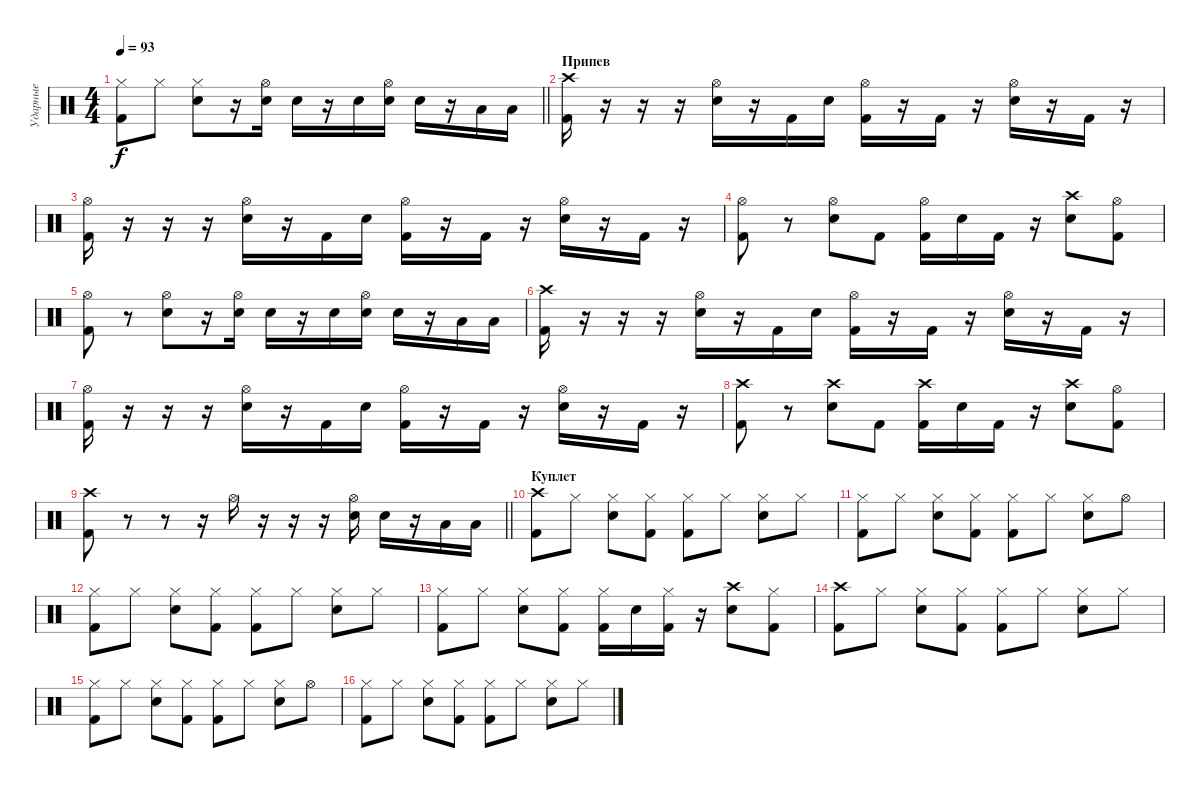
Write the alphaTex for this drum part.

\track ("Ударные" "Ударные") {instrument percussion}
\staff {score}
\articulation defaults
\ts (4 4)
\tempo 93
\clef neutral
\barLineRight lightlight
\ks c
("Hi-Hat (closed)" "Kick (hit) 2").8{dy f} "Hi-Hat (closed)".8 ("Hi-Hat (closed)" "Electric Snare (hit)").8 r.16 ("Hi-Hat (open)" "Electric Snare (hit)").16 "Electric Snare (hit)".16 r.16 "Electric Snare (hit)".16 ("Hi-Hat (open)" "Electric Snare (hit)").16 "Electric Snare (hit)".16 r.16 "Low Tom (hit)".16 "Low Tom (hit)".16 |
\section ("" "Припев")
("Crash high (hit)" "Kick (hit) 2").16 r.16 r.16 r.16 ("Hi-Hat (open)" "Electric Snare (hit)").16 r.16 "Kick (hit) 2".16 "Electric Snare (hit)".16 ("Hi-Hat (open)" "Kick (hit) 2").16 r.16 "Kick (hit) 2".16 r.16 ("Hi-Hat (open)" "Electric Snare (hit)").16 r.16 "Kick (hit) 2".16 r.16 |
("Hi-Hat (open)" "Kick (hit) 2").16 r.16 r.16 r.16 ("Hi-Hat (open)" "Electric Snare (hit)").16 r.16 "Kick (hit) 2".16 "Electric Snare (hit)".16 ("Hi-Hat (open)" "Kick (hit) 2").16 r.16 "Kick (hit) 2".16 r.16 ("Hi-Hat (open)" "Electric Snare (hit)").16 r.16 "Kick (hit) 2".16 r.16 |
("Hi-Hat (open)" "Kick (hit) 2").8 r.8 ("Hi-Hat (open)" "Electric Snare (hit)").8 "Kick (hit) 2".8 ("Hi-Hat (open)" "Kick (hit) 2").16 "Electric Snare (hit)".16 "Kick (hit) 2".16 r.16 ("Crash high (hit)" "Electric Snare (hit)").8 ("Hi-Hat (open)" "Kick (hit) 2").8 |
("Hi-Hat (open)" "Kick (hit) 2").8 r.8 ("Hi-Hat (open)" "Electric Snare (hit)").8 r.16 ("Hi-Hat (open)" "Electric Snare (hit)").16 "Electric Snare (hit)".16 r.16 "Electric Snare (hit)".16 ("Hi-Hat (open)" "Electric Snare (hit)").16 "Electric Snare (hit)".16 r.16 "Low Tom (hit)".16 "Low Tom (hit)".16 |
("Crash high (hit)" "Kick (hit) 2").16 r.16 r.16 r.16 ("Hi-Hat (open)" "Electric Snare (hit)").16 r.16 "Kick (hit) 2".16 "Electric Snare (hit)".16 ("Hi-Hat (open)" "Kick (hit) 2").16 r.16 "Kick (hit) 2".16 r.16 ("Hi-Hat (open)" "Electric Snare (hit)").16 r.16 "Kick (hit) 2".16 r.16 |
("Hi-Hat (open)" "Kick (hit) 2").16 r.16 r.16 r.16 ("Hi-Hat (open)" "Electric Snare (hit)").16 r.16 "Kick (hit) 2".16 "Electric Snare (hit)".16 ("Hi-Hat (open)" "Kick (hit) 2").16 r.16 "Kick (hit) 2".16 r.16 ("Hi-Hat (open)" "Electric Snare (hit)").16 r.16 "Kick (hit) 2".16 r.16 |
("Crash high (hit)" "Kick (hit) 2").8 r.8 ("Crash high (hit)" "Electric Snare (hit)").8 "Kick (hit) 2".8 ("Crash high (hit)" "Kick (hit) 2").16 "Electric Snare (hit)".16 "Kick (hit) 2".16 r.16 ("Crash high (hit)" "Electric Snare (hit)").8 ("Hi-Hat (open)" "Kick (hit) 2").8 |
\barLineRight lightlight
("Crash high (hit)" "Kick (hit) 2").8 r.8 r.8 r.16 "Hi-Hat (open)".16 r.16 r.16 r.16 ("Hi-Hat (open)" "Electric Snare (hit)").16 "Electric Snare (hit)".16 r.16 "Low Tom (hit)".16 "Low Tom (hit)".16 |
\section ("" "Куплет")
("Crash high (hit)" "Kick (hit) 2").8 "Hi-Hat (closed)".8 ("Hi-Hat (closed)" "Electric Snare (hit)").8 ("Hi-Hat (closed)" "Kick (hit) 2").8 ("Hi-Hat (closed)" "Kick (hit) 2").8 "Hi-Hat (closed)".8 ("Hi-Hat (closed)" "Electric Snare (hit)").8 "Hi-Hat (closed)".8 |
("Hi-Hat (closed)" "Kick (hit) 2").8 "Hi-Hat (closed)".8 ("Hi-Hat (closed)" "Electric Snare (hit)").8 ("Hi-Hat (closed)" "Kick (hit) 2").8 ("Hi-Hat (closed)" "Kick (hit) 2").8 "Hi-Hat (closed)".8 ("Hi-Hat (closed)" "Electric Snare (hit)").8 "Hi-Hat (open)".8 |
("Hi-Hat (closed)" "Kick (hit) 2").8 "Hi-Hat (closed)".8 ("Hi-Hat (closed)" "Electric Snare (hit)").8 ("Hi-Hat (closed)" "Kick (hit) 2").8 ("Hi-Hat (closed)" "Kick (hit) 2").8 "Hi-Hat (closed)".8 ("Hi-Hat (closed)" "Electric Snare (hit)").8 "Hi-Hat (closed)".8 |
("Hi-Hat (closed)" "Kick (hit) 2").8 "Hi-Hat (closed)".8 ("Hi-Hat (closed)" "Electric Snare (hit)").8 ("Hi-Hat (closed)" "Kick (hit) 2").8 ("Hi-Hat (closed)" "Kick (hit) 2").16 "Electric Snare (hit)".16 ("Hi-Hat (closed)" "Kick (hit) 2").16 r.16 ("Crash high (hit)" "Electric Snare (hit)").8 ("Hi-Hat (closed)" "Kick (hit) 2").8 |
("Crash high (hit)" "Kick (hit) 2").8 "Hi-Hat (closed)".8 ("Hi-Hat (closed)" "Electric Snare (hit)").8 ("Hi-Hat (closed)" "Kick (hit) 2").8 ("Hi-Hat (closed)" "Kick (hit) 2").8 "Hi-Hat (closed)".8 ("Hi-Hat (closed)" "Electric Snare (hit)").8 "Hi-Hat (closed)".8 |
("Hi-Hat (closed)" "Kick (hit) 2").8 "Hi-Hat (closed)".8 ("Hi-Hat (closed)" "Electric Snare (hit)").8 ("Hi-Hat (closed)" "Kick (hit) 2").8 ("Hi-Hat (closed)" "Kick (hit) 2").8 "Hi-Hat (closed)".8 ("Hi-Hat (closed)" "Electric Snare (hit)").8 "Hi-Hat (open)".8 |
("Hi-Hat (closed)" "Kick (hit) 2").8 "Hi-Hat (closed)".8 ("Hi-Hat (closed)" "Electric Snare (hit)").8 ("Hi-Hat (closed)" "Kick (hit) 2").8 ("Hi-Hat (closed)" "Kick (hit) 2").8 "Hi-Hat (closed)".8 ("Hi-Hat (closed)" "Electric Snare (hit)").8 "Hi-Hat (closed)".8
